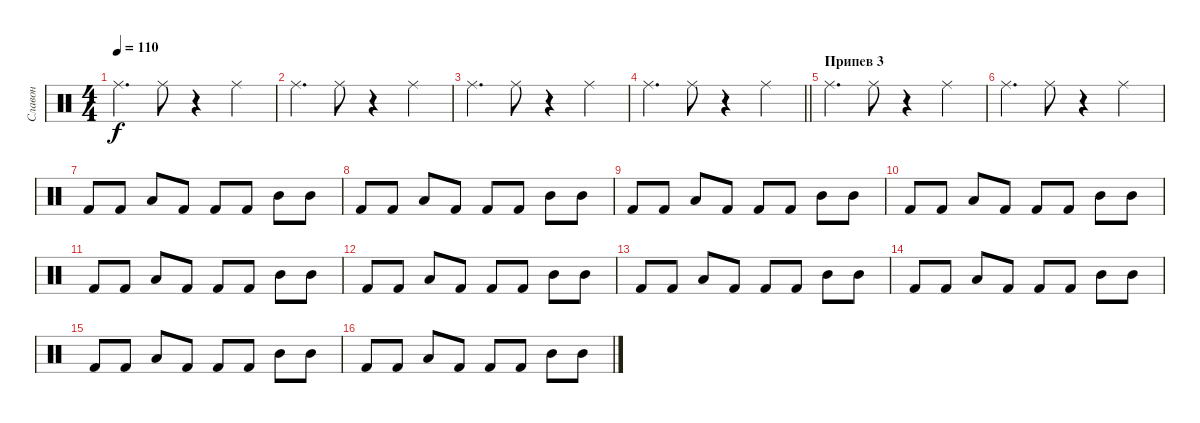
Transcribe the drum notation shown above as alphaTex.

\track ("Славон" "Славон") {instrument percussion}
\staff {score}
\articulation defaults
\ts (4 4)
\tempo 110
\clef neutral
\ks c "Ride (middle)".4{d dy f} "Ride (middle)".8
r.4 "Ride (middle)".4 |
"Ride (middle)".4{d} "Ride (middle)".8 r.4 "Ride (middle)".4 |
"Ride (middle)".4{d} "Ride (middle)".8 r.4 "Ride (middle)".4 |
\barLineRight lightlight "Ride (middle)".4{d} "Ride (middle)".8
r.4 "Ride (middle)".4 |
\section ("" "Припев 3")
"Ride (middle)".4{d} "Ride (middle)".8 r.4 "Ride (middle)".4 |
"Ride (middle)".4{d} "Ride (middle)".8 r.4 "Ride (middle)".4 |
"Kick (hit) 2".8 "Kick (hit) 2".8 "Low Tom (hit)".8 "Kick (hit) 2".8 "Kick (hit) 2".8 "Kick (hit) 2".8 "Mid Tom (hit)".8 "Mid Tom (hit)".8 |
"Kick (hit) 2".8 "Kick (hit) 2".8 "Low Tom (hit)".8 "Kick (hit) 2".8 "Kick (hit) 2".8 "Kick (hit) 2".8 "Mid Tom (hit)".8 "Mid Tom (hit)".8 |
"Kick (hit) 2".8 "Kick (hit) 2".8 "Low Tom (hit)".8 "Kick (hit) 2".8 "Kick (hit) 2".8 "Kick (hit) 2".8 "Mid Tom (hit)".8 "Mid Tom (hit)".8 |
"Kick (hit) 2".8 "Kick (hit) 2".8 "Low Tom (hit)".8 "Kick (hit) 2".8 "Kick (hit) 2".8 "Kick (hit) 2".8 "Mid Tom (hit)".8 "Mid Tom (hit)".8 |
"Kick (hit) 2".8 "Kick (hit) 2".8 "Low Tom (hit)".8 "Kick (hit) 2".8 "Kick (hit) 2".8 "Kick (hit) 2".8 "Mid Tom (hit)".8 "Mid Tom (hit)".8 |
"Kick (hit) 2".8 "Kick (hit) 2".8 "Low Tom (hit)".8 "Kick (hit) 2".8 "Kick (hit) 2".8 "Kick (hit) 2".8 "Mid Tom (hit)".8 "Mid Tom (hit)".8 |
"Kick (hit) 2".8 "Kick (hit) 2".8 "Low Tom (hit)".8 "Kick (hit) 2".8 "Kick (hit) 2".8 "Kick (hit) 2".8 "Mid Tom (hit)".8 "Mid Tom (hit)".8 |
"Kick (hit) 2".8 "Kick (hit) 2".8 "Low Tom (hit)".8 "Kick (hit) 2".8 "Kick (hit) 2".8 "Kick (hit) 2".8 "Mid Tom (hit)".8 "Mid Tom (hit)".8 |
"Kick (hit) 2".8 "Kick (hit) 2".8 "Low Tom (hit)".8 "Kick (hit) 2".8 "Kick (hit) 2".8 "Kick (hit) 2".8 "Mid Tom (hit)".8 "Mid Tom (hit)".8 |
"Kick (hit) 2".8 "Kick (hit) 2".8 "Low Tom (hit)".8 "Kick (hit) 2".8 "Kick (hit) 2".8 "Kick (hit) 2".8 "Mid Tom (hit)".8 "Mid Tom (hit)".8
